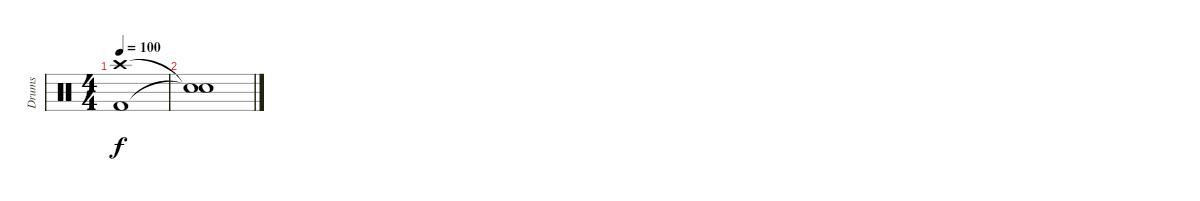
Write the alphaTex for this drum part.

\track ("Drums" "Drums") {instrument percussion}
\staff {score}
\articulation defaults
\ts (4 4)
\tempo 100
\clef neutral
\ks c
("Crash high (hit)" "Kick (hit) 2").1{dy f volume 11} |
("Snare (hit)"{t} "Snare (hit)"{t}).1{volume 0}
